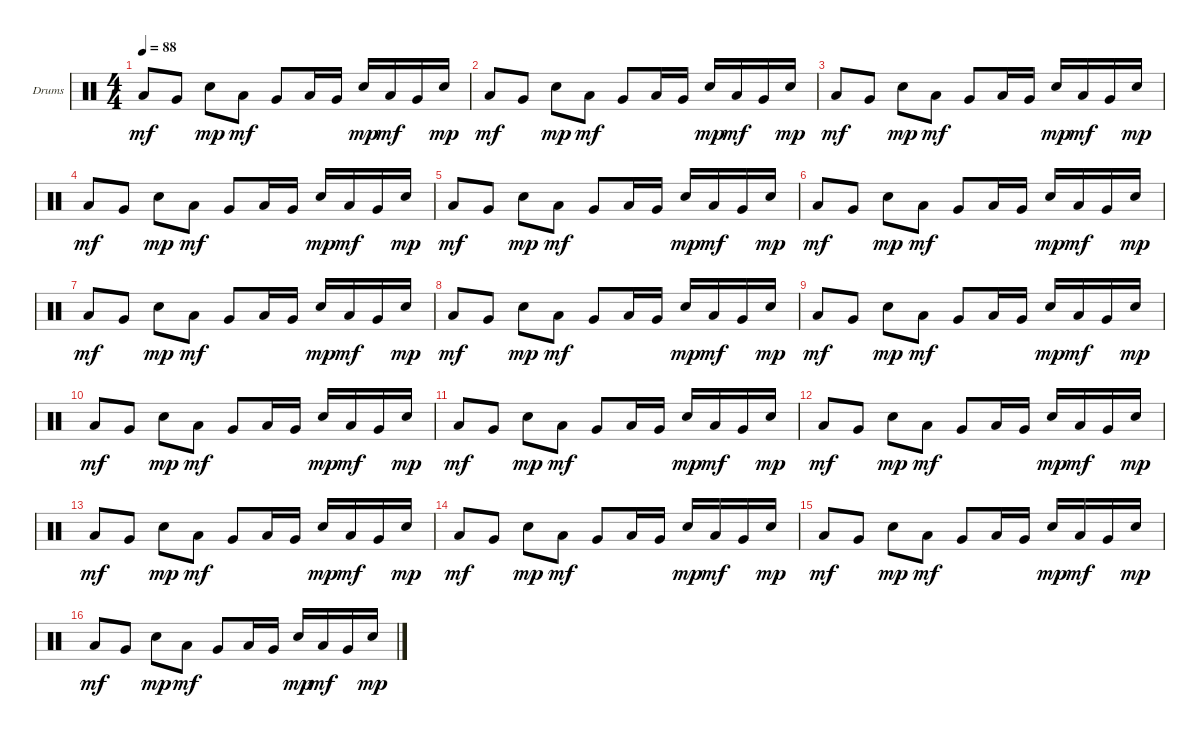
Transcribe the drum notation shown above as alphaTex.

\defaultSystemsLayout 4
\bracketExtendMode groupsimilarinstruments
\firstSystemTrackNameOrientation horizontal
\otherSystemsTrackNameOrientation horizontal
\track ("Helders" "Drums") {instrument percussion}
\staff {score}
\articulation defaults
\ts (4 4)
\tempo 88
\clef neutral
\ks c "Low Tom (hit)".8{dy mf} "Very Low Tom (hit)".8 "Snare (hit) 2".8{dy mp} "Low Tom (hit)".8{dy mf} "Very Low Tom (hit)".8 "Low Tom (hit)".16 "Very Low Tom (hit)".16 "Snare (hit) 2".16{dy mp} "Low Tom (hit)".16{dy mf} "Very Low Tom (hit)".16 "Snare (hit) 2".16{dy mp}
|
"Low Tom (hit)".8{dy mf} "Very Low Tom (hit)".8 "Snare (hit) 2".8{dy mp} "Low Tom (hit)".8{dy mf} "Very Low Tom (hit)".8 "Low Tom (hit)".16 "Very Low Tom (hit)".16 "Snare (hit) 2".16{dy mp} "Low Tom (hit)".16{dy mf} "Very Low Tom (hit)".16 "Snare (hit) 2".16{dy mp} |
"Low Tom (hit)".8{dy mf} "Very Low Tom (hit)".8 "Snare (hit) 2".8{dy mp} "Low Tom (hit)".8{dy mf} "Very Low Tom (hit)".8 "Low Tom (hit)".16 "Very Low Tom (hit)".16 "Snare (hit) 2".16{dy mp} "Low Tom (hit)".16{dy mf} "Very Low Tom (hit)".16 "Snare (hit) 2".16{dy mp} |
"Low Tom (hit)".8{dy mf} "Very Low Tom (hit)".8 "Snare (hit) 2".8{dy mp} "Low Tom (hit)".8{dy mf} "Very Low Tom (hit)".8 "Low Tom (hit)".16 "Very Low Tom (hit)".16 "Snare (hit) 2".16{dy mp} "Low Tom (hit)".16{dy mf} "Very Low Tom (hit)".16 "Snare (hit) 2".16{dy mp} |
"Low Tom (hit)".8{dy mf} "Very Low Tom (hit)".8 "Snare (hit) 2".8{dy mp} "Low Tom (hit)".8{dy mf} "Very Low Tom (hit)".8 "Low Tom (hit)".16 "Very Low Tom (hit)".16 "Snare (hit) 2".16{dy mp} "Low Tom (hit)".16{dy mf} "Very Low Tom (hit)".16 "Snare (hit) 2".16{dy mp} |
"Low Tom (hit)".8{dy mf} "Very Low Tom (hit)".8 "Snare (hit) 2".8{dy mp} "Low Tom (hit)".8{dy mf} "Very Low Tom (hit)".8 "Low Tom (hit)".16 "Very Low Tom (hit)".16 "Snare (hit) 2".16{dy mp} "Low Tom (hit)".16{dy mf} "Very Low Tom (hit)".16 "Snare (hit) 2".16{dy mp} |
"Low Tom (hit)".8{dy mf} "Very Low Tom (hit)".8 "Snare (hit) 2".8{dy mp} "Low Tom (hit)".8{dy mf} "Very Low Tom (hit)".8 "Low Tom (hit)".16 "Very Low Tom (hit)".16 "Snare (hit) 2".16{dy mp} "Low Tom (hit)".16{dy mf} "Very Low Tom (hit)".16 "Snare (hit) 2".16{dy mp} |
"Low Tom (hit)".8{dy mf} "Very Low Tom (hit)".8 "Snare (hit) 2".8{dy mp} "Low Tom (hit)".8{dy mf} "Very Low Tom (hit)".8 "Low Tom (hit)".16 "Very Low Tom (hit)".16 "Snare (hit) 2".16{dy mp} "Low Tom (hit)".16{dy mf} "Very Low Tom (hit)".16 "Snare (hit) 2".16{dy mp} |
"Low Tom (hit)".8{dy mf} "Very Low Tom (hit)".8 "Snare (hit) 2".8{dy mp} "Low Tom (hit)".8{dy mf} "Very Low Tom (hit)".8 "Low Tom (hit)".16 "Very Low Tom (hit)".16 "Snare (hit) 2".16{dy mp} "Low Tom (hit)".16{dy mf} "Very Low Tom (hit)".16 "Snare (hit) 2".16{dy mp} |
"Low Tom (hit)".8{dy mf} "Very Low Tom (hit)".8 "Snare (hit) 2".8{dy mp} "Low Tom (hit)".8{dy mf} "Very Low Tom (hit)".8 "Low Tom (hit)".16 "Very Low Tom (hit)".16 "Snare (hit) 2".16{dy mp} "Low Tom (hit)".16{dy mf} "Very Low Tom (hit)".16 "Snare (hit) 2".16{dy mp} |
"Low Tom (hit)".8{dy mf} "Very Low Tom (hit)".8 "Snare (hit) 2".8{dy mp} "Low Tom (hit)".8{dy mf} "Very Low Tom (hit)".8 "Low Tom (hit)".16 "Very Low Tom (hit)".16 "Snare (hit) 2".16{dy mp} "Low Tom (hit)".16{dy mf} "Very Low Tom (hit)".16 "Snare (hit) 2".16{dy mp} |
"Low Tom (hit)".8{dy mf} "Very Low Tom (hit)".8 "Snare (hit) 2".8{dy mp} "Low Tom (hit)".8{dy mf} "Very Low Tom (hit)".8 "Low Tom (hit)".16 "Very Low Tom (hit)".16 "Snare (hit) 2".16{dy mp} "Low Tom (hit)".16{dy mf} "Very Low Tom (hit)".16 "Snare (hit) 2".16{dy mp} |
"Low Tom (hit)".8{dy mf} "Very Low Tom (hit)".8 "Snare (hit) 2".8{dy mp} "Low Tom (hit)".8{dy mf} "Very Low Tom (hit)".8 "Low Tom (hit)".16 "Very Low Tom (hit)".16 "Snare (hit) 2".16{dy mp} "Low Tom (hit)".16{dy mf} "Very Low Tom (hit)".16 "Snare (hit) 2".16{dy mp} |
"Low Tom (hit)".8{dy mf} "Very Low Tom (hit)".8 "Snare (hit) 2".8{dy mp} "Low Tom (hit)".8{dy mf} "Very Low Tom (hit)".8 "Low Tom (hit)".16 "Very Low Tom (hit)".16 "Snare (hit) 2".16{dy mp} "Low Tom (hit)".16{dy mf} "Very Low Tom (hit)".16 "Snare (hit) 2".16{dy mp} |
"Low Tom (hit)".8{dy mf} "Very Low Tom (hit)".8 "Snare (hit) 2".8{dy mp} "Low Tom (hit)".8{dy mf} "Very Low Tom (hit)".8 "Low Tom (hit)".16 "Very Low Tom (hit)".16 "Snare (hit) 2".16{dy mp} "Low Tom (hit)".16{dy mf} "Very Low Tom (hit)".16 "Snare (hit) 2".16{dy mp} |
"Low Tom (hit)".8{dy mf} "Very Low Tom (hit)".8 "Snare (hit) 2".8{dy mp} "Low Tom (hit)".8{dy mf} "Very Low Tom (hit)".8 "Low Tom (hit)".16 "Very Low Tom (hit)".16 "Snare (hit) 2".16{dy mp} "Low Tom (hit)".16{dy mf} "Very Low Tom (hit)".16 "Snare (hit) 2".16{dy mp}
